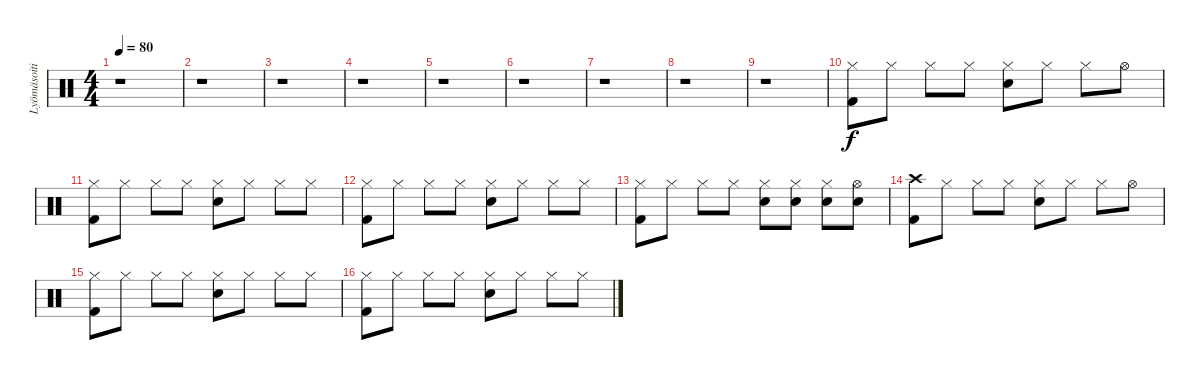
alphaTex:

\track ("Lyömäsoitin" "Lyömäsoiti") {instrument percussion}
\staff {score}
\articulation defaults
\ts (4 4)
\tempo 80
\clef neutral
\ks c
r.1{dy f} |
r.1 |
r.1 |
r.1 |
r.1 |
r.1 |
r.1 |
r.1 |
r.1 |
("Hi-Hat (closed)" "Kick (hit) 2").8 "Hi-Hat (closed)".8 "Hi-Hat (closed)".8 "Hi-Hat (closed)".8 ("Hi-Hat (closed)" "Snare (hit) 2").8 "Hi-Hat (closed)".8 "Hi-Hat (closed)".8 "Hi-Hat (open)".8 |
("Hi-Hat (closed)" "Kick (hit) 2").8 "Hi-Hat (closed)".8 "Hi-Hat (closed)".8 "Hi-Hat (closed)".8 ("Hi-Hat (closed)" "Snare (hit) 2").8 "Hi-Hat (closed)".8 "Hi-Hat (closed)".8 "Hi-Hat (closed)".8 |
("Hi-Hat (closed)" "Kick (hit) 2").8 "Hi-Hat (closed)".8 "Hi-Hat (closed)".8 "Hi-Hat (closed)".8 ("Hi-Hat (closed)" "Snare (hit) 2").8 "Hi-Hat (closed)".8 "Hi-Hat (closed)".8 "Hi-Hat (closed)".8 |
("Hi-Hat (closed)" "Kick (hit) 2").8 "Hi-Hat (closed)".8 "Hi-Hat (closed)".8 "Hi-Hat (closed)".8 ("Hi-Hat (closed)" "Snare (hit) 2").8 ("Hi-Hat (closed)" "Snare (hit) 2").8 ("Hi-Hat (closed)" "Snare (hit) 2").8 ("Hi-Hat (open)" "Snare (hit) 2").8 |
("Crash high (hit)" "Kick (hit) 2").8 "Hi-Hat (closed)".8 "Hi-Hat (closed)".8 "Hi-Hat (closed)".8 ("Hi-Hat (closed)" "Snare (hit) 2").8 "Hi-Hat (closed)".8 "Hi-Hat (closed)".8 "Hi-Hat (open)".8 |
("Hi-Hat (closed)" "Kick (hit) 2").8 "Hi-Hat (closed)".8 "Hi-Hat (closed)".8 "Hi-Hat (closed)".8 ("Hi-Hat (closed)" "Snare (hit) 2").8 "Hi-Hat (closed)".8 "Hi-Hat (closed)".8 "Hi-Hat (closed)".8 |
("Hi-Hat (closed)" "Kick (hit) 2").8 "Hi-Hat (closed)".8 "Hi-Hat (closed)".8 "Hi-Hat (closed)".8 ("Hi-Hat (closed)" "Snare (hit) 2").8 "Hi-Hat (closed)".8 "Hi-Hat (closed)".8 "Hi-Hat (closed)".8
